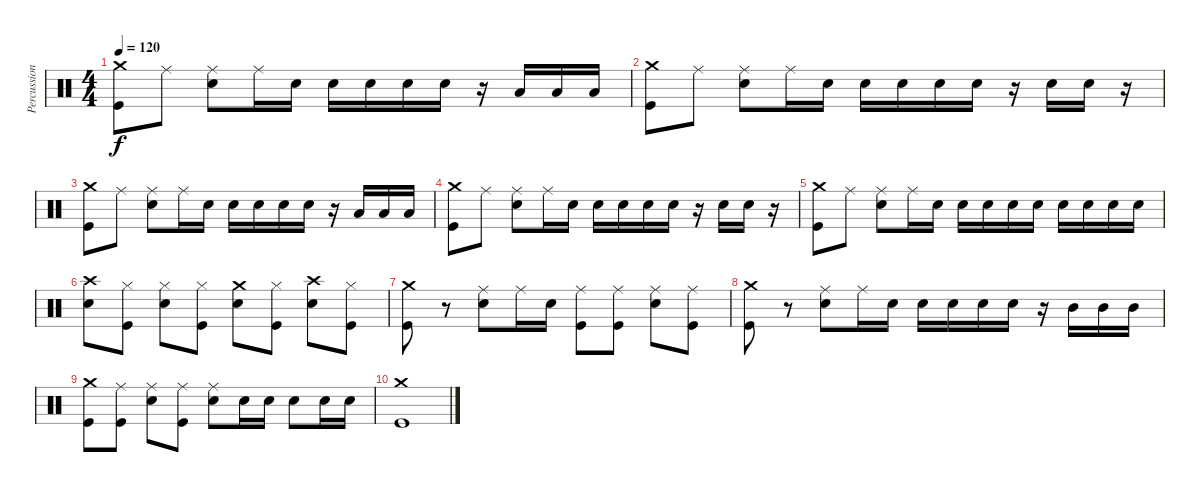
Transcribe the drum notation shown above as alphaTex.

\track ("Percussion" "Percussion") {instrument percussion}
\staff {score}
\articulation defaults
\ts (4 4)
\tempo 120
\clef neutral
\ks c
("Crash medium (hit)" "Kick (hit)").8{dy f} "Ride (middle)".8 ("Ride (middle)" "Snare (hit) 2").8 "Ride (middle)".16 "Snare (hit) 2".16 "Snare (hit) 2".16 "Snare (hit) 2".16 "Snare (hit) 2".16 "Snare (hit) 2".16 r.16 "Low Tom (hit)".16 "Low Tom (hit)".16 "Low Tom (hit)".16 |
("Crash medium (hit)" "Kick (hit)").8 "Ride (middle)".8 ("Ride (middle)" "Snare (hit) 2").8 "Ride (middle)".16 "Snare (hit) 2".16 "Snare (hit) 2".16 "Snare (hit) 2".16 "Snare (hit) 2".16 "Snare (hit) 2".16 r.16 "Snare (hit) 2".16 "Snare (hit) 2".16 r.16 |
("Crash medium (hit)" "Kick (hit)").8 "Ride (middle)".8 ("Ride (middle)" "Snare (hit) 2").8 "Ride (middle)".16 "Snare (hit) 2".16 "Snare (hit) 2".16 "Snare (hit) 2".16 "Snare (hit) 2".16 "Snare (hit) 2".16 r.16 "Low Tom (hit)".16 "Low Tom (hit)".16 "Low Tom (hit)".16 |
("Crash medium (hit)" "Kick (hit)").8 "Ride (middle)".8 ("Ride (middle)" "Snare (hit) 2").8 "Ride (middle)".16 "Snare (hit) 2".16 "Snare (hit) 2".16 "Snare (hit) 2".16 "Snare (hit) 2".16 "Snare (hit) 2".16 r.16 "Snare (hit) 2".16 "Snare (hit) 2".16 r.16 |
("Crash medium (hit)" "Kick (hit)").8 "Ride (middle)".8 ("Ride (middle)" "Snare (hit) 2").8 "Ride (middle)".16 "Snare (hit) 2".16 "Snare (hit) 2".16 "Snare (hit) 2".16 "Snare (hit) 2".16 "Snare (hit) 2".16 "Snare (hit) 2".16 "Snare (hit) 2".16 "Snare (hit) 2".16 "Snare (hit) 2".16 |
("Crash high (hit)" "Snare (hit) 2").8 ("Hi-Hat (closed)" "Kick (hit)").8 ("Hi-Hat (closed)" "Snare (hit) 2").8 ("Hi-Hat (closed)" "Kick (hit)").8 ("Crash medium (hit)" "Snare (hit) 2").8 ("Hi-Hat (closed)" "Kick (hit)").8 ("Crash high (hit)" "Snare (hit) 2").8 ("Hi-Hat (closed)" "Kick (hit)").8 |
("Crash medium (hit)" "Kick (hit)").8 r.8 ("Ride (middle)" "Snare (hit) 2").8 "Ride (middle)".16 "Snare (hit) 2".16 ("Ride (middle)" "Kick (hit)").8 ("Ride (middle)" "Kick (hit)").8 ("Ride (middle)" "Snare (hit) 2").8 ("Ride (middle)" "Kick (hit)").8 |
("Crash medium (hit)" "Kick (hit)").8 r.8 ("Ride (middle)" "Snare (hit) 2").8 "Ride (middle)".16 "Snare (hit) 2".16 "Snare (hit) 2".16 "Snare (hit) 2".16 "Snare (hit) 2".16 "Snare (hit) 2".16 r.16 "Mid Tom (hit)".16 "Mid Tom (hit)".16 "Mid Tom (hit)".16 |
("Crash medium (hit)" "Kick (hit)").8 ("Ride (middle)" "Kick (hit)").8 ("Ride (middle)" "Snare (hit) 2").8 ("Ride (middle)" "Kick (hit)").8 ("Ride (middle)" "Snare (hit) 2").8 "Snare (hit) 2".16 "Snare (hit) 2".16 "Snare (hit) 2".8 "Snare (hit) 2".16 "Snare (hit) 2".16 |
("Crash medium (hit)" "Kick (hit)").1
